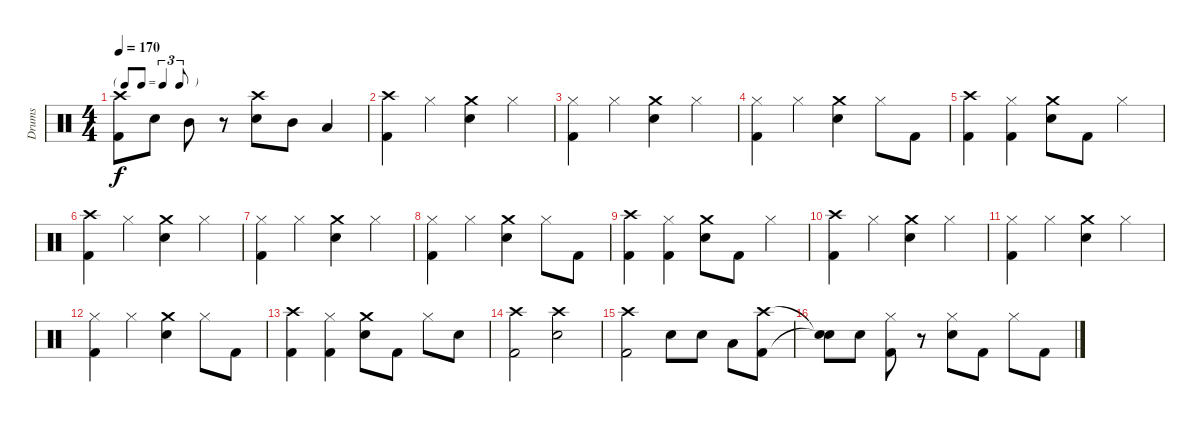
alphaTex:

\track ("Drums" "Drums") {instrument percussion}
\staff {score}
\articulation defaults
\ts (4 4)
\tf triplet8th
\tempo 170
\clef neutral
\ks c
("Crash high (hit)" "Kick (hit) 2").8{dy f} "Snare (hit) 2".8 "Mid Tom (hit)".8 r.8 ("Crash high (hit)" "Snare (hit) 2").8 "Mid Tom (hit)".8 "Low Tom (hit)".4 |
("Crash high (hit)" "Kick (hit) 2").4 "Hi-Hat (closed)".4 ("Crash medium (hit)" "Snare (hit) 2").4 "Hi-Hat (closed)".4 |
("Hi-Hat (closed)" "Kick (hit) 2").4 "Hi-Hat (closed)".4 ("Crash medium (hit)" "Snare (hit) 2").4 "Hi-Hat (closed)".4 |
("Hi-Hat (closed)" "Kick (hit) 2").4 "Hi-Hat (closed)".4 ("Crash medium (hit)" "Snare (hit) 2").4 "Hi-Hat (closed)".8 "Kick (hit) 2".8 |
("Crash high (hit)" "Kick (hit) 2").4 ("Hi-Hat (closed)" "Kick (hit) 2").4 ("Crash medium (hit)" "Snare (hit) 2").8 "Kick (hit) 2".8 "Hi-Hat (closed)".4 |
("Crash high (hit)" "Kick (hit) 2").4 "Hi-Hat (closed)".4 ("Crash medium (hit)" "Snare (hit) 2").4 "Hi-Hat (closed)".4 |
("Hi-Hat (closed)" "Kick (hit) 2").4 "Hi-Hat (closed)".4 ("Crash medium (hit)" "Snare (hit) 2").4 "Hi-Hat (closed)".4 |
("Hi-Hat (closed)" "Kick (hit) 2").4 "Hi-Hat (closed)".4 ("Crash medium (hit)" "Snare (hit) 2").4 "Hi-Hat (closed)".8 "Kick (hit) 2".8 |
("Crash high (hit)" "Kick (hit) 2").4 ("Hi-Hat (closed)" "Kick (hit) 2").4 ("Crash medium (hit)" "Snare (hit) 2").8 "Kick (hit) 2".8 "Hi-Hat (closed)".4 |
("Crash high (hit)" "Kick (hit) 2").4 "Hi-Hat (closed)".4 ("Crash medium (hit)" "Snare (hit) 2").4 "Hi-Hat (closed)".4 |
("Hi-Hat (closed)" "Kick (hit) 2").4 "Hi-Hat (closed)".4 ("Crash medium (hit)" "Snare (hit) 2").4 "Hi-Hat (closed)".4 |
("Hi-Hat (closed)" "Kick (hit) 2").4 "Hi-Hat (closed)".4 ("Crash medium (hit)" "Snare (hit) 2").4 "Hi-Hat (closed)".8 "Kick (hit) 2".8 |
("Crash high (hit)" "Kick (hit) 2").4 ("Hi-Hat (closed)" "Kick (hit) 2").4 ("Crash medium (hit)" "Snare (hit) 2").8 "Kick (hit) 2".8 "Hi-Hat (closed)".8 "Snare (hit) 2".8 |
("Crash high (hit)" "Kick (hit) 2").2 ("Crash high (hit)" "Snare (hit) 2").2 |
("Crash high (hit)" "Kick (hit) 2").2 "Snare (hit) 2".8 "Snare (hit) 2".8 "Low Tom (hit)".8 ("Crash high (hit)" "Kick (hit) 2").8 |
("Snare (hit)"{t} "Snare (hit)"{t}).8 "Snare (hit) 2".8 ("Hi-Hat (closed)" "Kick (hit) 2").8 r.8 ("Hi-Hat (closed)" "Snare (hit) 2").8 "Kick (hit) 2".8 "Hi-Hat (closed)".8 "Kick (hit) 2".8
